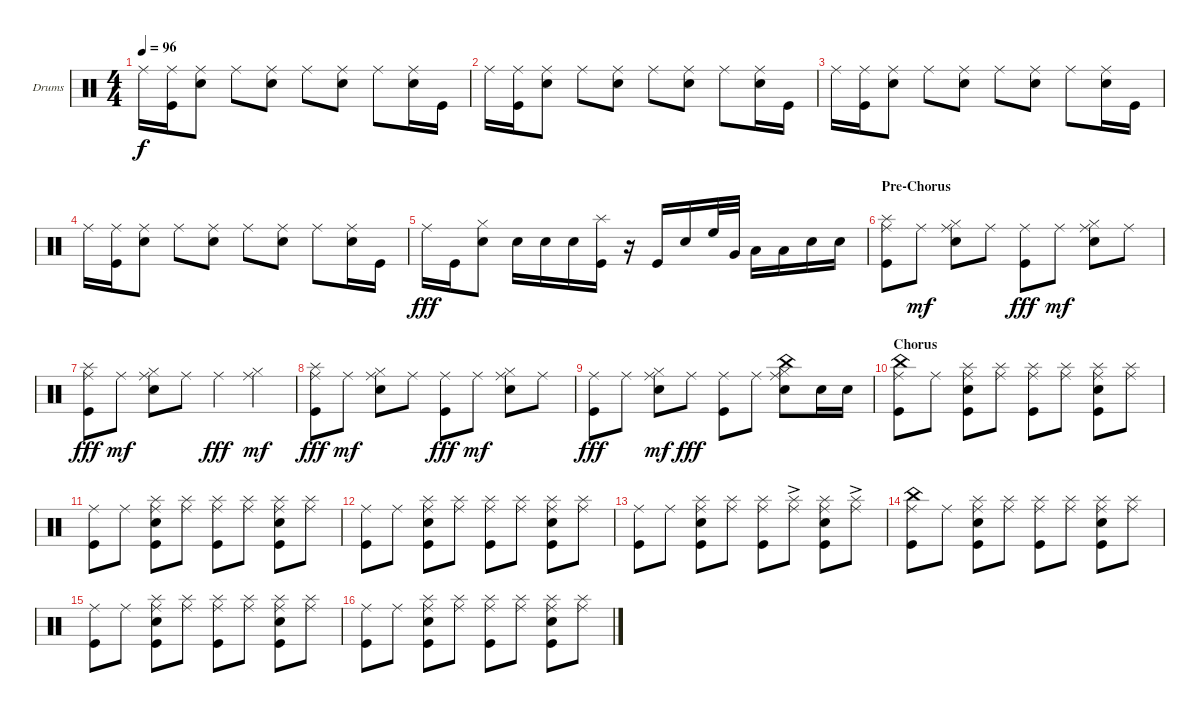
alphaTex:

\defaultSystemsLayout 4
\bracketExtendMode groupsimilarinstruments
\firstSystemTrackNameOrientation horizontal
\otherSystemsTrackNameOrientation horizontal
\track ("Howard" "Drums") {instrument percussion}
\staff {score}
\articulation defaults
\ts (4 4)
\tempo 96
\clef neutral
\ks c "Ride (middle)".16{dy f}
("Ride (middle)" "Kick (hit)").16 ("Ride (middle)" "Snare (hit) 2").8 "Ride (middle)".8 ("Ride (middle)" "Snare (hit) 2").8 "Ride (middle)".8 ("Ride (middle)" "Snare (hit) 2").8 "Ride (middle)".8 ("Ride (middle)" "Snare (hit) 2").16 "Kick (hit)".16 |
"Ride (middle)".16 ("Ride (middle)" "Kick (hit)").16 ("Ride (middle)" "Snare (hit) 2").8 "Ride (middle)".8 ("Ride (middle)" "Snare (hit) 2").8 "Ride (middle)".8 ("Ride (middle)" "Snare (hit) 2").8 "Ride (middle)".8 ("Ride (middle)" "Snare (hit) 2").16 "Kick (hit)".16 |
"Ride (middle)".16 ("Ride (middle)" "Kick (hit)").16 ("Ride (middle)" "Snare (hit) 2").8 "Ride (middle)".8 ("Ride (middle)" "Snare (hit) 2").8 "Ride (middle)".8 ("Ride (middle)" "Snare (hit) 2").8 "Ride (middle)".8 ("Ride (middle)" "Snare (hit) 2").16 "Kick (hit)".16 |
"Ride (middle)".16 ("Ride (middle)" "Kick (hit)").16 ("Ride (middle)" "Snare (hit) 2").8 "Ride (middle)".8 ("Ride (middle)" "Snare (hit) 2").8 "Ride (middle)".8 ("Ride (middle)" "Snare (hit) 2").8 "Ride (middle)".8 ("Ride (middle)" "Snare (hit) 2").16 "Kick (hit)".16 |
"Ride (middle)".16{dy fff} "Kick (hit)".16 ("Snare (hit) 2" "Hi-Hat (closed)").8 "Snare (hit) 2".16 "Snare (hit) 2".16 "Snare (hit) 2".16 ("Kick (hit)" "Splash (hit)").16 r.16 "Kick (hit)".16 "Snare (hit) 2".16 "High Floor Tom (hit)".32 "Very Low Tom (hit)".32 "Low Tom (hit)".16 "Low Tom (hit)".16 "Snare (hit) 2".16 "Snare (hit) 2".16 |
\section ("" "Pre-Chorus")
("Kick (hit)" "Ride (middle)" "Splash (hit)").8 "Ride (middle)".8{dy mf} ("Snare (hit) 2" "Hi-Hat (closed)" "Ride (middle)").8 "Ride (middle)".8 ("Kick (hit)" "Ride (middle)").8{dy fff} "Ride (middle)".8{dy mf} ("Snare (hit) 2" "Hi-Hat (closed)" "Ride (middle)").8 "Ride (middle)".8 |
("Kick (hit)" "Ride (middle)" "Splash (hit)").8{dy fff} "Ride (middle)".8{dy mf} ("Snare (hit) 2" "Hi-Hat (closed)" "Ride (middle)").8 "Ride (middle)".8 "Ride (middle)".4{dy fff} ("Hi-Hat (closed)" "Ride (middle)").4{dy mf} |
("Kick (hit)" "Ride (middle)" "Splash (hit)").8{dy fff} "Ride (middle)".8{dy mf} ("Snare (hit) 2" "Hi-Hat (closed)" "Ride (middle)").8 "Ride (middle)".8 ("Kick (hit)" "Ride (middle)").8{dy fff} "Ride (middle)".8{dy mf} ("Snare (hit) 2" "Hi-Hat (closed)" "Ride (middle)").8 "Ride (middle)".8 |
("Kick (hit)" "Ride (middle)").8{dy fff} "Ride (middle)".8 ("Snare (hit) 2" "Hi-Hat (closed)" "Ride (middle)").8{dy mf} "Ride (middle)".8{dy fff} ("Kick (hit)" "Ride (middle)").8 "Ride (middle)".8 ("Snare (hit) 2" "Hi-Hat (closed)" "Ride (middle)" "China (hit)").8 "Snare (hit) 2".16 "Snare (hit) 2".16 |
\section ("" "Chorus")
("Kick (hit)" "Ride (middle)" "China (hit)").8 "Ride (middle)".8 ("Splash (hit)" "Ride (middle)" "Kick (hit)" "Snare (hit) 2").8 ("Splash (hit)" "Ride (middle)").8 ("Splash (hit)" "Kick (hit)" "Ride (middle)").8 ("Splash (hit)" "Ride (middle)").8 ("Splash (hit)" "Kick (hit)" "Snare (hit) 2" "Ride (middle)").8 ("Splash (hit)" "Ride (middle)").8 |
("Kick (hit)" "Ride (middle)").8 "Ride (middle)".8 ("Splash (hit)" "Ride (middle)" "Kick (hit)" "Snare (hit) 2").8 ("Splash (hit)" "Ride (middle)").8 ("Splash (hit)" "Kick (hit)" "Ride (middle)").8 ("Splash (hit)" "Ride (middle)").8 ("Splash (hit)" "Kick (hit)" "Snare (hit) 2" "Ride (middle)").8 ("Splash (hit)" "Ride (middle)").8 |
("Kick (hit)" "Ride (middle)").8 "Ride (middle)".8 ("Splash (hit)" "Ride (middle)" "Kick (hit)" "Snare (hit) 2").8 ("Splash (hit)" "Ride (middle)").8 ("Splash (hit)" "Kick (hit)" "Ride (middle)").8 ("Splash (hit)" "Ride (middle)").8 ("Splash (hit)" "Kick (hit)" "Snare (hit) 2" "Ride (middle)").8 ("Splash (hit)" "Ride (middle)").8 |
("Kick (hit)" "Ride (middle)").8 "Ride (middle)".8 ("Splash (hit)" "Ride (middle)" "Kick (hit)" "Snare (hit) 2").8 ("Splash (hit)" "Ride (middle)").8 ("Splash (hit)" "Kick (hit)" "Ride (middle)").8 ("Splash (hit)" "Ride (middle)"{ac}).8 ("Splash (hit)" "Kick (hit)" "Snare (hit) 2" "Ride (middle)").8 ("Splash (hit)" "Ride (middle)"{ac}).8 |
("China (hit)" "Kick (hit)" "Ride (middle)").8 "Ride (middle)".8 ("Splash (hit)" "Ride (middle)" "Kick (hit)" "Snare (hit) 2").8 ("Splash (hit)" "Ride (middle)").8 ("Splash (hit)" "Kick (hit)" "Ride (middle)").8 ("Splash (hit)" "Ride (middle)").8 ("Splash (hit)" "Kick (hit)" "Snare (hit) 2" "Ride (middle)").8 ("Splash (hit)" "Ride (middle)").8 |
("Kick (hit)" "Ride (middle)").8 "Ride (middle)".8 ("Splash (hit)" "Ride (middle)" "Kick (hit)" "Snare (hit) 2").8 ("Splash (hit)" "Ride (middle)").8 ("Splash (hit)" "Kick (hit)" "Ride (middle)").8 ("Splash (hit)" "Ride (middle)").8 ("Splash (hit)" "Kick (hit)" "Snare (hit) 2" "Ride (middle)").8 ("Splash (hit)" "Ride (middle)").8 |
("Kick (hit)" "Ride (middle)").8 "Ride (middle)".8 ("Splash (hit)" "Ride (middle)" "Kick (hit)" "Snare (hit) 2").8 ("Splash (hit)" "Ride (middle)").8 ("Splash (hit)" "Kick (hit)" "Ride (middle)").8 ("Splash (hit)" "Ride (middle)").8 ("Splash (hit)" "Kick (hit)" "Snare (hit) 2" "Ride (middle)").8 ("Splash (hit)" "Ride (middle)").8
